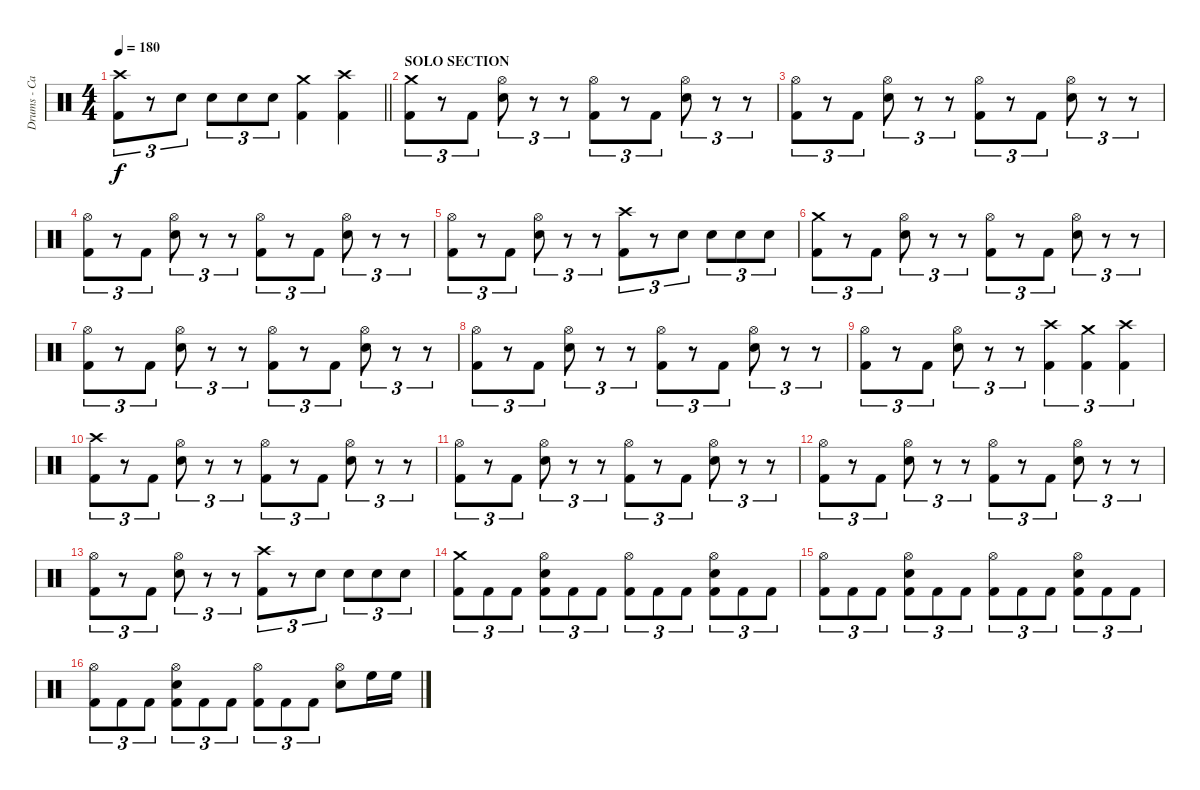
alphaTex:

\track ("Drums - Carlos Cruz" "Drums - Ca") {instrument percussion}
\staff {score}
\articulation defaults
\ts (4 4)
\tempo 180
\clef neutral
\barLineRight lightlight
\ks c
("Crash high (hit)" "Kick (hit) 2").8{tu (3 2) dy f} r.8{tu (3 2)} "Snare (hit) 2".8{tu (3 2)} "Snare (hit) 2".8{tu (3 2)} "Snare (hit) 2".8{tu (3 2)} "Snare (hit) 2".8{tu (3 2)} ("Crash medium (hit)" "Kick (hit) 2").4 ("Crash high (hit)" "Kick (hit) 2").4 |
\section ("" "SOLO SECTION")
("Crash medium (hit)" "Kick (hit) 2").8{tu (3 2)} r.8{tu (3 2)} "Kick (hit) 2".8{tu (3 2)} ("Hi-Hat (open)" "Snare (hit) 2").8{tu (3 2)} r.8{tu (3 2)} r.8{tu (3 2)} ("Hi-Hat (open)" "Kick (hit) 2").8{tu (3 2)} r.8{tu (3 2)} "Kick (hit) 2".8{tu (3 2)} ("Hi-Hat (open)" "Snare (hit) 2").8{tu (3 2)} r.8{tu (3 2)} r.8{tu (3 2)} |
("Hi-Hat (open)" "Kick (hit) 2").8{tu (3 2)} r.8{tu (3 2)} "Kick (hit) 2".8{tu (3 2)} ("Hi-Hat (open)" "Snare (hit) 2").8{tu (3 2)} r.8{tu (3 2)} r.8{tu (3 2)} ("Hi-Hat (open)" "Kick (hit) 2").8{tu (3 2)} r.8{tu (3 2)} "Kick (hit) 2".8{tu (3 2)} ("Hi-Hat (open)" "Snare (hit) 2").8{tu (3 2)} r.8{tu (3 2)} r.8{tu (3 2)} |
("Hi-Hat (open)" "Kick (hit) 2").8{tu (3 2)} r.8{tu (3 2)} "Kick (hit) 2".8{tu (3 2)} ("Hi-Hat (open)" "Snare (hit) 2").8{tu (3 2)} r.8{tu (3 2)} r.8{tu (3 2)} ("Hi-Hat (open)" "Kick (hit) 2").8{tu (3 2)} r.8{tu (3 2)} "Kick (hit) 2".8{tu (3 2)} ("Hi-Hat (open)" "Snare (hit) 2").8{tu (3 2)} r.8{tu (3 2)} r.8{tu (3 2)} |
("Hi-Hat (open)" "Kick (hit) 2").8{tu (3 2)} r.8{tu (3 2)} "Kick (hit) 2".8{tu (3 2)} ("Hi-Hat (open)" "Snare (hit) 2").8{tu (3 2)} r.8{tu (3 2)} r.8{tu (3 2)} ("Crash high (hit)" "Kick (hit) 2").8{tu (3 2)} r.8{tu (3 2)} "Snare (hit) 2".8{tu (3 2)} "Snare (hit) 2".8{tu (3 2)} "Snare (hit) 2".8{tu (3 2)} "Snare (hit) 2".8{tu (3 2)} |
("Crash medium (hit)" "Kick (hit) 2").8{tu (3 2)} r.8{tu (3 2)} "Kick (hit) 2".8{tu (3 2)} ("Hi-Hat (open)" "Snare (hit) 2").8{tu (3 2)} r.8{tu (3 2)} r.8{tu (3 2)} ("Hi-Hat (open)" "Kick (hit) 2").8{tu (3 2)} r.8{tu (3 2)} "Kick (hit) 2".8{tu (3 2)} ("Hi-Hat (open)" "Snare (hit) 2").8{tu (3 2)} r.8{tu (3 2)} r.8{tu (3 2)} |
("Hi-Hat (open)" "Kick (hit) 2").8{tu (3 2)} r.8{tu (3 2)} "Kick (hit) 2".8{tu (3 2)} ("Hi-Hat (open)" "Snare (hit) 2").8{tu (3 2)} r.8{tu (3 2)} r.8{tu (3 2)} ("Hi-Hat (open)" "Kick (hit) 2").8{tu (3 2)} r.8{tu (3 2)} "Kick (hit) 2".8{tu (3 2)} ("Hi-Hat (open)" "Snare (hit) 2").8{tu (3 2)} r.8{tu (3 2)} r.8{tu (3 2)} |
("Hi-Hat (open)" "Kick (hit) 2").8{tu (3 2)} r.8{tu (3 2)} "Kick (hit) 2".8{tu (3 2)} ("Hi-Hat (open)" "Snare (hit) 2").8{tu (3 2)} r.8{tu (3 2)} r.8{tu (3 2)} ("Hi-Hat (open)" "Kick (hit) 2").8{tu (3 2)} r.8{tu (3 2)} "Kick (hit) 2".8{tu (3 2)} ("Hi-Hat (open)" "Snare (hit) 2").8{tu (3 2)} r.8{tu (3 2)} r.8{tu (3 2)} |
("Hi-Hat (open)" "Kick (hit) 2").8{tu (3 2)} r.8{tu (3 2)} "Kick (hit) 2".8{tu (3 2)} ("Hi-Hat (open)" "Snare (hit) 2").8{tu (3 2)} r.8{tu (3 2)} r.8{tu (3 2)} ("Crash high (hit)" "Kick (hit) 2").4{tu (3 2)} ("Crash medium (hit)" "Kick (hit) 2").4{tu (3 2)} ("Crash high (hit)" "Kick (hit) 2").4{tu (3 2)} |
("Crash high (hit)" "Kick (hit) 2").8{tu (3 2)} r.8{tu (3 2)} "Kick (hit) 2".8{tu (3 2)} ("Hi-Hat (open)" "Snare (hit) 2").8{tu (3 2)} r.8{tu (3 2)} r.8{tu (3 2)} ("Hi-Hat (open)" "Kick (hit) 2").8{tu (3 2)} r.8{tu (3 2)} "Kick (hit) 2".8{tu (3 2)} ("Hi-Hat (open)" "Snare (hit) 2").8{tu (3 2)} r.8{tu (3 2)} r.8{tu (3 2)} |
("Hi-Hat (open)" "Kick (hit) 2").8{tu (3 2)} r.8{tu (3 2)} "Kick (hit) 2".8{tu (3 2)} ("Hi-Hat (open)" "Snare (hit) 2").8{tu (3 2)} r.8{tu (3 2)} r.8{tu (3 2)} ("Hi-Hat (open)" "Kick (hit) 2").8{tu (3 2)} r.8{tu (3 2)} "Kick (hit) 2".8{tu (3 2)} ("Hi-Hat (open)" "Snare (hit) 2").8{tu (3 2)} r.8{tu (3 2)} r.8{tu (3 2)} |
("Hi-Hat (open)" "Kick (hit) 2").8{tu (3 2)} r.8{tu (3 2)} "Kick (hit) 2".8{tu (3 2)} ("Hi-Hat (open)" "Snare (hit) 2").8{tu (3 2)} r.8{tu (3 2)} r.8{tu (3 2)} ("Hi-Hat (open)" "Kick (hit) 2").8{tu (3 2)} r.8{tu (3 2)} "Kick (hit) 2".8{tu (3 2)} ("Hi-Hat (open)" "Snare (hit) 2").8{tu (3 2)} r.8{tu (3 2)} r.8{tu (3 2)} |
("Hi-Hat (open)" "Kick (hit) 2").8{tu (3 2)} r.8{tu (3 2)} "Kick (hit) 2".8{tu (3 2)} ("Hi-Hat (open)" "Snare (hit) 2").8{tu (3 2)} r.8{tu (3 2)} r.8{tu (3 2)} ("Crash high (hit)" "Kick (hit) 2").8{tu (3 2)} r.8{tu (3 2)} "Snare (hit) 2".8{tu (3 2)} "Snare (hit) 2".8{tu (3 2)} "Snare (hit) 2".8{tu (3 2)} "Snare (hit) 2".8{tu (3 2)} |
("Crash medium (hit)" "Kick (hit) 2").8{tu (3 2)} "Kick (hit) 2".8{tu (3 2)} "Kick (hit) 2".8{tu (3 2)} ("Hi-Hat (open)" "Snare (hit) 2" "Kick (hit) 2").8{tu (3 2)} "Kick (hit) 2".8{tu (3 2)} "Kick (hit) 2".8{tu (3 2)} ("Hi-Hat (open)" "Kick (hit) 2").8{tu (3 2)} "Kick (hit) 2".8{tu (3 2)} "Kick (hit) 2".8{tu (3 2)} ("Hi-Hat (open)" "Snare (hit) 2" "Kick (hit) 2").8{tu (3 2)} "Kick (hit) 2".8{tu (3 2)} "Kick (hit) 2".8{tu (3 2)} |
("Hi-Hat (open)" "Kick (hit) 2").8{tu (3 2)} "Kick (hit) 2".8{tu (3 2)} "Kick (hit) 2".8{tu (3 2)} ("Hi-Hat (open)" "Snare (hit) 2" "Kick (hit) 2").8{tu (3 2)} "Kick (hit) 2".8{tu (3 2)} "Kick (hit) 2".8{tu (3 2)} ("Hi-Hat (open)" "Kick (hit) 2").8{tu (3 2)} "Kick (hit) 2".8{tu (3 2)} "Kick (hit) 2".8{tu (3 2)} ("Hi-Hat (open)" "Snare (hit) 2" "Kick (hit) 2").8{tu (3 2)} "Kick (hit) 2".8{tu (3 2)} "Kick (hit) 2".8{tu (3 2)} |
("Hi-Hat (open)" "Kick (hit) 2").8{tu (3 2)} "Kick (hit) 2".8{tu (3 2)} "Kick (hit) 2".8{tu (3 2)} ("Hi-Hat (open)" "Snare (hit) 2" "Kick (hit) 2").8{tu (3 2)} "Kick (hit) 2".8{tu (3 2)} "Kick (hit) 2".8{tu (3 2)} ("Hi-Hat (open)" "Kick (hit) 2").8{tu (3 2)} "Kick (hit) 2".8{tu (3 2)} "Kick (hit) 2".8{tu (3 2)} ("Hi-Hat (open)" "Snare (hit) 2").8 "High Floor Tom (hit)".16 "High Floor Tom (hit)".16
